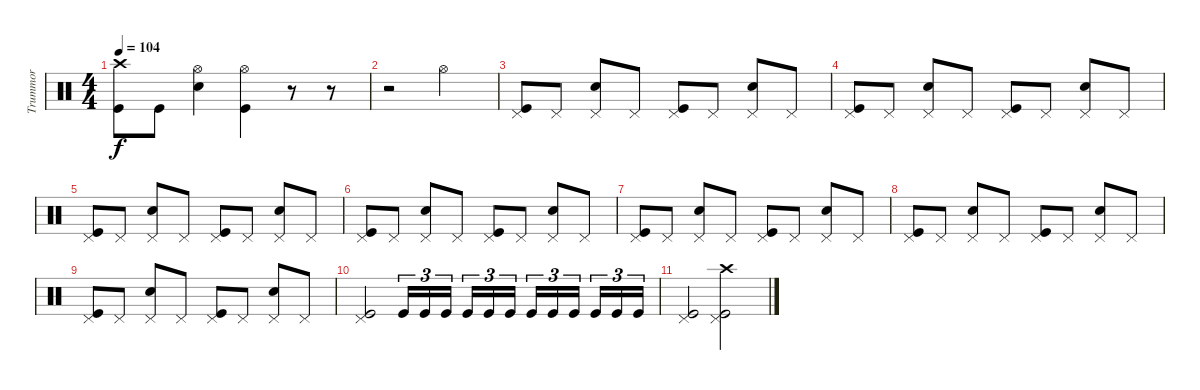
\track ("Trummor" "Trummor") {instrument percussion}
\staff {score}
\articulation defaults
\ts (4 4)
\tempo 104
\clef neutral
\ks c
("Crash high (hit)" "Kick (hit)").8{dy f} "Kick (hit)".8 ("Hi-Hat (open)" "Snare (hit) 2").4 ("Hi-Hat (open)" "Kick (hit)").4 r.8 r.8 |
r.2 "Hi-Hat (open)".2 |
("Pedal Hi-Hat (hit)" "Kick (hit)").8 "Pedal Hi-Hat (hit)".8 ("Pedal Hi-Hat (hit)" "Snare (hit) 2").8 "Pedal Hi-Hat (hit)".8 ("Pedal Hi-Hat (hit)" "Kick (hit)").8 "Pedal Hi-Hat (hit)".8 ("Pedal Hi-Hat (hit)" "Snare (hit) 2").8 "Pedal Hi-Hat (hit)".8 |
("Pedal Hi-Hat (hit)" "Kick (hit)").8 "Pedal Hi-Hat (hit)".8 ("Pedal Hi-Hat (hit)" "Snare (hit) 2").8 "Pedal Hi-Hat (hit)".8 ("Pedal Hi-Hat (hit)" "Kick (hit)").8 "Pedal Hi-Hat (hit)".8 ("Pedal Hi-Hat (hit)" "Snare (hit) 2").8 "Pedal Hi-Hat (hit)".8 |
("Pedal Hi-Hat (hit)" "Kick (hit)").8 "Pedal Hi-Hat (hit)".8 ("Pedal Hi-Hat (hit)" "Snare (hit) 2").8 "Pedal Hi-Hat (hit)".8 ("Pedal Hi-Hat (hit)" "Kick (hit)").8 "Pedal Hi-Hat (hit)".8 ("Pedal Hi-Hat (hit)" "Snare (hit) 2").8 "Pedal Hi-Hat (hit)".8 |
("Pedal Hi-Hat (hit)" "Kick (hit)").8 "Pedal Hi-Hat (hit)".8 ("Pedal Hi-Hat (hit)" "Snare (hit) 2").8 "Pedal Hi-Hat (hit)".8 ("Pedal Hi-Hat (hit)" "Kick (hit)").8 "Pedal Hi-Hat (hit)".8 ("Pedal Hi-Hat (hit)" "Snare (hit) 2").8 "Pedal Hi-Hat (hit)".8 |
("Pedal Hi-Hat (hit)" "Kick (hit)").8 "Pedal Hi-Hat (hit)".8 ("Pedal Hi-Hat (hit)" "Snare (hit) 2").8 "Pedal Hi-Hat (hit)".8 ("Pedal Hi-Hat (hit)" "Kick (hit)").8 "Pedal Hi-Hat (hit)".8 ("Pedal Hi-Hat (hit)" "Snare (hit) 2").8 "Pedal Hi-Hat (hit)".8 |
("Pedal Hi-Hat (hit)" "Kick (hit)").8 "Pedal Hi-Hat (hit)".8 ("Pedal Hi-Hat (hit)" "Snare (hit) 2").8 "Pedal Hi-Hat (hit)".8 ("Pedal Hi-Hat (hit)" "Kick (hit)").8 "Pedal Hi-Hat (hit)".8 ("Pedal Hi-Hat (hit)" "Snare (hit) 2").8 "Pedal Hi-Hat (hit)".8 |
("Pedal Hi-Hat (hit)" "Kick (hit)").8 "Pedal Hi-Hat (hit)".8 ("Pedal Hi-Hat (hit)" "Snare (hit) 2").8 "Pedal Hi-Hat (hit)".8 ("Pedal Hi-Hat (hit)" "Kick (hit)").8 "Pedal Hi-Hat (hit)".8 ("Pedal Hi-Hat (hit)" "Snare (hit) 2").8 "Pedal Hi-Hat (hit)".8 |
("Pedal Hi-Hat (hit)" "Kick (hit)").2 "Kick (hit)".16{tu (3 2)} "Kick (hit)".16{tu (3 2)} "Kick (hit)".16{tu (3 2)} "Kick (hit)".16{tu (3 2)} "Kick (hit)".16{tu (3 2)} "Kick (hit)".16{tu (3 2)} "Kick (hit)".16{tu (3 2)} "Kick (hit)".16{tu (3 2)} "Kick (hit)".16{tu (3 2)} "Kick (hit)".16{tu (3 2)} "Kick (hit)".16{tu (3 2)} "Kick (hit)".16{tu (3 2)} |
("Pedal Hi-Hat (hit)" "Kick (hit)").2 ("Pedal Hi-Hat (hit)" "Crash high (hit)" "Kick (hit)").2
